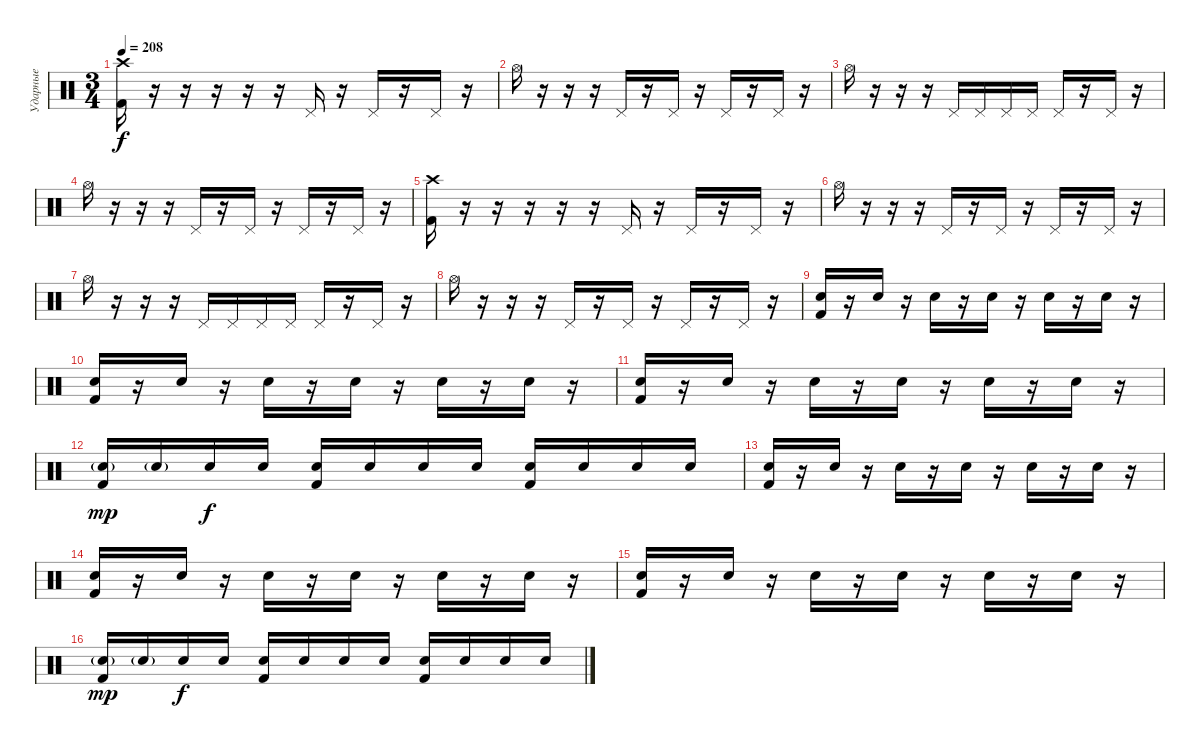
\track ("Ударные" "Ударные") {instrument percussion}
\staff {score}
\articulation defaults
\ts (3 4)
\tempo 208
\clef neutral
\ks c
("Crash high (hit)" "Kick (hit) 2").16{dy f} r.16 r.16 r.16 r.16 r.16 "Pedal Hi-Hat (hit)".16 r.16 "Pedal Hi-Hat (hit)".16 r.16 "Pedal Hi-Hat (hit)".16 r.16 |
"Hi-Hat (open)".16 r.16 r.16 r.16 "Pedal Hi-Hat (hit)".16 r.16 "Pedal Hi-Hat (hit)".16 r.16 "Pedal Hi-Hat (hit)".16 r.16 "Pedal Hi-Hat (hit)".16 r.16 |
"Hi-Hat (open)".16 r.16 r.16 r.16 "Pedal Hi-Hat (hit)".16 "Pedal Hi-Hat (hit)".16 "Pedal Hi-Hat (hit)".16 "Pedal Hi-Hat (hit)".16 "Pedal Hi-Hat (hit)".16 r.16 "Pedal Hi-Hat (hit)".16 r.16 |
"Hi-Hat (open)".16 r.16 r.16 r.16 "Pedal Hi-Hat (hit)".16 r.16 "Pedal Hi-Hat (hit)".16 r.16 "Pedal Hi-Hat (hit)".16 r.16 "Pedal Hi-Hat (hit)".16 r.16 |
("Crash high (hit)" "Kick (hit) 2").16 r.16 r.16 r.16 r.16 r.16 "Pedal Hi-Hat (hit)".16 r.16 "Pedal Hi-Hat (hit)".16 r.16 "Pedal Hi-Hat (hit)".16 r.16 |
"Hi-Hat (open)".16 r.16 r.16 r.16 "Pedal Hi-Hat (hit)".16 r.16 "Pedal Hi-Hat (hit)".16 r.16 "Pedal Hi-Hat (hit)".16 r.16 "Pedal Hi-Hat (hit)".16 r.16 |
"Hi-Hat (open)".16 r.16 r.16 r.16 "Pedal Hi-Hat (hit)".16 "Pedal Hi-Hat (hit)".16 "Pedal Hi-Hat (hit)".16 "Pedal Hi-Hat (hit)".16 "Pedal Hi-Hat (hit)".16 r.16 "Pedal Hi-Hat (hit)".16 r.16 |
"Hi-Hat (open)".16 r.16 r.16 r.16 "Pedal Hi-Hat (hit)".16 r.16 "Pedal Hi-Hat (hit)".16 r.16 "Pedal Hi-Hat (hit)".16 r.16 "Pedal Hi-Hat (hit)".16 r.16 |
("Electric Snare (hit)" "Kick (hit) 2").16{volume 7} r.16 "Electric Snare (hit)".16 r.16 "Electric Snare (hit)".16 r.16 "Electric Snare (hit)".16 r.16 "Electric Snare (hit)".16 r.16 "Electric Snare (hit)".16 r.16 |
("Electric Snare (hit)" "Kick (hit) 2").16 r.16 "Electric Snare (hit)".16 r.16 "Electric Snare (hit)".16 r.16 "Electric Snare (hit)".16 r.16 "Electric Snare (hit)".16 r.16 "Electric Snare (hit)".16 r.16 |
("Electric Snare (hit)" "Kick (hit) 2").16 r.16 "Electric Snare (hit)".16 r.16 "Electric Snare (hit)".16 r.16 "Electric Snare (hit)".16 r.16 "Electric Snare (hit)".16 r.16 "Electric Snare (hit)".16 r.16 |
("Electric Snare (hit)"{g} "Kick (hit) 2").16{dy mp} "Electric Snare (hit)"{g}.16 "Electric Snare (hit)".16{dy f} "Electric Snare (hit)".16 ("Electric Snare (hit)" "Kick (hit) 2").16 "Electric Snare (hit)".16 "Electric Snare (hit)".16 "Electric Snare (hit)".16 ("Electric Snare (hit)" "Kick (hit) 2").16 "Electric Snare (hit)".16 "Electric Snare (hit)".16 "Electric Snare (hit)".16 |
("Electric Snare (hit)" "Kick (hit) 2").16 r.16 "Electric Snare (hit)".16 r.16 "Electric Snare (hit)".16 r.16 "Electric Snare (hit)".16 r.16 "Electric Snare (hit)".16 r.16 "Electric Snare (hit)".16 r.16 |
("Electric Snare (hit)" "Kick (hit) 2").16 r.16 "Electric Snare (hit)".16 r.16 "Electric Snare (hit)".16 r.16 "Electric Snare (hit)".16 r.16 "Electric Snare (hit)".16 r.16 "Electric Snare (hit)".16 r.16 |
("Electric Snare (hit)" "Kick (hit) 2").16 r.16 "Electric Snare (hit)".16 r.16 "Electric Snare (hit)".16 r.16 "Electric Snare (hit)".16 r.16 "Electric Snare (hit)".16 r.16 "Electric Snare (hit)".16 r.16 |
("Electric Snare (hit)"{g} "Kick (hit) 2").16{dy mp} "Electric Snare (hit)"{g}.16 "Electric Snare (hit)".16{dy f} "Electric Snare (hit)".16 ("Electric Snare (hit)" "Kick (hit) 2").16 "Electric Snare (hit)".16 "Electric Snare (hit)".16 "Electric Snare (hit)".16 ("Electric Snare (hit)" "Kick (hit) 2").16 "Electric Snare (hit)".16 "Electric Snare (hit)".16 "Electric Snare (hit)".16
